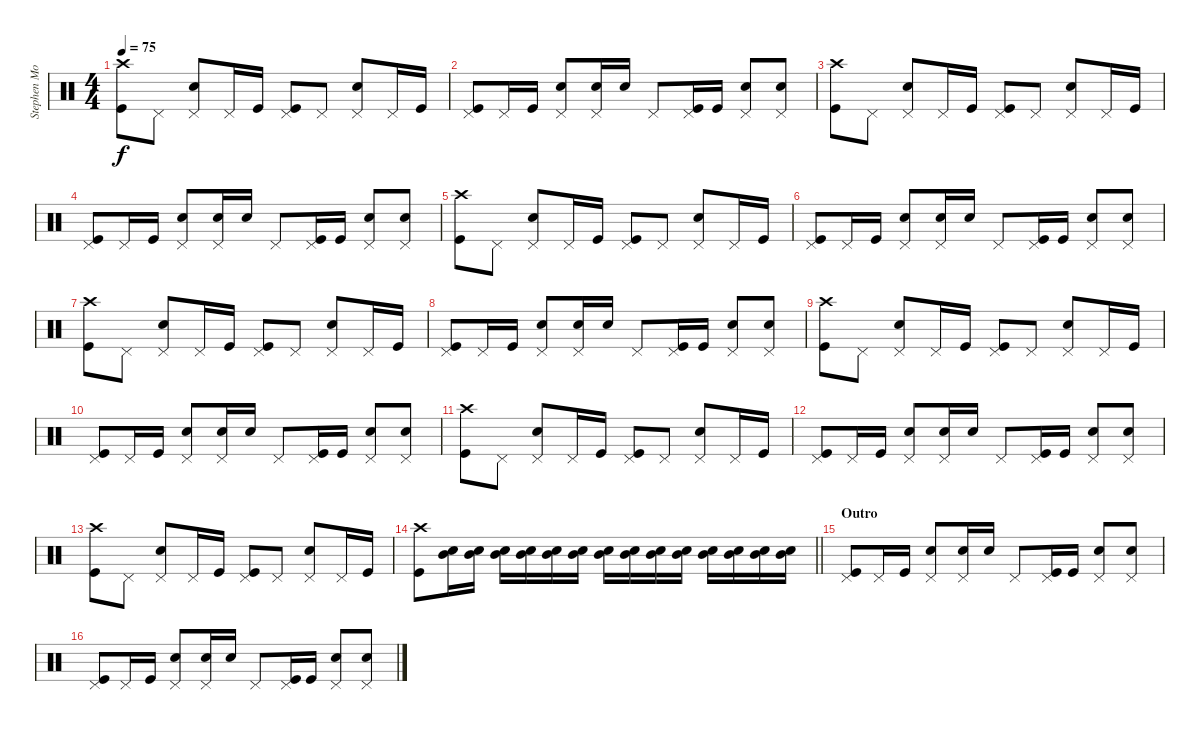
\track ("Stephen Morris (Drums)" "Stephen Mo") {instrument percussion}
\staff {score}
\articulation defaults
\ts (4 4)
\tempo 75
\clef neutral
\ks c
("Crash high (hit)" "Kick (hit)").8{dy f} "Pedal Hi-Hat (hit)".8 ("Pedal Hi-Hat (hit)" "Electric Snare (hit)").8 "Pedal Hi-Hat (hit)".16 "Kick (hit)".16 ("Pedal Hi-Hat (hit)" "Kick (hit)").8 "Pedal Hi-Hat (hit)".8 ("Pedal Hi-Hat (hit)" "Electric Snare (hit)").8 "Pedal Hi-Hat (hit)".16 "Kick (hit)".16 |
("Pedal Hi-Hat (hit)" "Kick (hit)").8 "Pedal Hi-Hat (hit)".16 "Kick (hit)".16 ("Pedal Hi-Hat (hit)" "Electric Snare (hit)").8 ("Pedal Hi-Hat (hit)" "Electric Snare (hit)").16 "Electric Snare (hit)".16 "Pedal Hi-Hat (hit)".8 ("Pedal Hi-Hat (hit)" "Kick (hit)").16 "Kick (hit)".16 ("Pedal Hi-Hat (hit)" "Electric Snare (hit)").8 ("Pedal Hi-Hat (hit)" "Electric Snare (hit)").8 |
("Crash high (hit)" "Kick (hit)").8 "Pedal Hi-Hat (hit)".8 ("Pedal Hi-Hat (hit)" "Electric Snare (hit)").8 "Pedal Hi-Hat (hit)".16 "Kick (hit)".16 ("Pedal Hi-Hat (hit)" "Kick (hit)").8 "Pedal Hi-Hat (hit)".8 ("Pedal Hi-Hat (hit)" "Electric Snare (hit)").8 "Pedal Hi-Hat (hit)".16 "Kick (hit)".16 |
("Pedal Hi-Hat (hit)" "Kick (hit)").8 "Pedal Hi-Hat (hit)".16 "Kick (hit)".16 ("Pedal Hi-Hat (hit)" "Electric Snare (hit)").8 ("Pedal Hi-Hat (hit)" "Electric Snare (hit)").16 "Electric Snare (hit)".16 "Pedal Hi-Hat (hit)".8 ("Pedal Hi-Hat (hit)" "Kick (hit)").16 "Kick (hit)".16 ("Pedal Hi-Hat (hit)" "Electric Snare (hit)").8 ("Pedal Hi-Hat (hit)" "Electric Snare (hit)").8 |
("Crash high (hit)" "Kick (hit)").8 "Pedal Hi-Hat (hit)".8 ("Pedal Hi-Hat (hit)" "Electric Snare (hit)").8 "Pedal Hi-Hat (hit)".16 "Kick (hit)".16 ("Pedal Hi-Hat (hit)" "Kick (hit)").8 "Pedal Hi-Hat (hit)".8 ("Pedal Hi-Hat (hit)" "Electric Snare (hit)").8 "Pedal Hi-Hat (hit)".16 "Kick (hit)".16 |
("Pedal Hi-Hat (hit)" "Kick (hit)").8 "Pedal Hi-Hat (hit)".16 "Kick (hit)".16 ("Pedal Hi-Hat (hit)" "Electric Snare (hit)").8 ("Pedal Hi-Hat (hit)" "Electric Snare (hit)").16 "Electric Snare (hit)".16 "Pedal Hi-Hat (hit)".8 ("Pedal Hi-Hat (hit)" "Kick (hit)").16 "Kick (hit)".16 ("Pedal Hi-Hat (hit)" "Electric Snare (hit)").8 ("Pedal Hi-Hat (hit)" "Electric Snare (hit)").8 |
("Crash high (hit)" "Kick (hit)").8 "Pedal Hi-Hat (hit)".8 ("Pedal Hi-Hat (hit)" "Electric Snare (hit)").8 "Pedal Hi-Hat (hit)".16 "Kick (hit)".16 ("Pedal Hi-Hat (hit)" "Kick (hit)").8 "Pedal Hi-Hat (hit)".8 ("Pedal Hi-Hat (hit)" "Electric Snare (hit)").8 "Pedal Hi-Hat (hit)".16 "Kick (hit)".16 |
("Pedal Hi-Hat (hit)" "Kick (hit)").8 "Pedal Hi-Hat (hit)".16 "Kick (hit)".16 ("Pedal Hi-Hat (hit)" "Electric Snare (hit)").8 ("Pedal Hi-Hat (hit)" "Electric Snare (hit)").16 "Electric Snare (hit)".16 "Pedal Hi-Hat (hit)".8 ("Pedal Hi-Hat (hit)" "Kick (hit)").16 "Kick (hit)".16 ("Pedal Hi-Hat (hit)" "Electric Snare (hit)").8 ("Pedal Hi-Hat (hit)" "Electric Snare (hit)").8 |
("Crash high (hit)" "Kick (hit)").8 "Pedal Hi-Hat (hit)".8 ("Pedal Hi-Hat (hit)" "Electric Snare (hit)").8 "Pedal Hi-Hat (hit)".16 "Kick (hit)".16 ("Pedal Hi-Hat (hit)" "Kick (hit)").8 "Pedal Hi-Hat (hit)".8 ("Pedal Hi-Hat (hit)" "Electric Snare (hit)").8 "Pedal Hi-Hat (hit)".16 "Kick (hit)".16 |
("Pedal Hi-Hat (hit)" "Kick (hit)").8 "Pedal Hi-Hat (hit)".16 "Kick (hit)".16 ("Pedal Hi-Hat (hit)" "Electric Snare (hit)").8 ("Pedal Hi-Hat (hit)" "Electric Snare (hit)").16 "Electric Snare (hit)".16 "Pedal Hi-Hat (hit)".8 ("Pedal Hi-Hat (hit)" "Kick (hit)").16 "Kick (hit)".16 ("Pedal Hi-Hat (hit)" "Electric Snare (hit)").8 ("Pedal Hi-Hat (hit)" "Electric Snare (hit)").8 |
("Crash high (hit)" "Kick (hit)").8 "Pedal Hi-Hat (hit)".8 ("Pedal Hi-Hat (hit)" "Electric Snare (hit)").8 "Pedal Hi-Hat (hit)".16 "Kick (hit)".16 ("Pedal Hi-Hat (hit)" "Kick (hit)").8 "Pedal Hi-Hat (hit)".8 ("Pedal Hi-Hat (hit)" "Electric Snare (hit)").8 "Pedal Hi-Hat (hit)".16 "Kick (hit)".16 |
("Pedal Hi-Hat (hit)" "Kick (hit)").8 "Pedal Hi-Hat (hit)".16 "Kick (hit)".16 ("Pedal Hi-Hat (hit)" "Electric Snare (hit)").8 ("Pedal Hi-Hat (hit)" "Electric Snare (hit)").16 "Electric Snare (hit)".16 "Pedal Hi-Hat (hit)".8 ("Pedal Hi-Hat (hit)" "Kick (hit)").16 "Kick (hit)".16 ("Pedal Hi-Hat (hit)" "Electric Snare (hit)").8 ("Pedal Hi-Hat (hit)" "Electric Snare (hit)").8 |
("Crash high (hit)" "Kick (hit)").8 "Pedal Hi-Hat (hit)".8 ("Pedal Hi-Hat (hit)" "Electric Snare (hit)").8 "Pedal Hi-Hat (hit)".16 "Kick (hit)".16 ("Pedal Hi-Hat (hit)" "Kick (hit)").8 "Pedal Hi-Hat (hit)".8 ("Pedal Hi-Hat (hit)" "Electric Snare (hit)").8 "Pedal Hi-Hat (hit)".16 "Kick (hit)".16 |
\barLineRight lightlight
("Crash high (hit)" "Kick (hit)").8 ("Mid Tom (hit)" "Electric Snare (hit)").16 ("Mid Tom (hit)" "Electric Snare (hit)").16 ("Mid Tom (hit)" "Electric Snare (hit)").16 ("Mid Tom (hit)" "Electric Snare (hit)").16 ("Mid Tom (hit)" "Electric Snare (hit)").16 ("Mid Tom (hit)" "Electric Snare (hit)").16 ("Mid Tom (hit)" "Electric Snare (hit)").16 ("Mid Tom (hit)" "Electric Snare (hit)").16 ("Mid Tom (hit)" "Electric Snare (hit)").16 ("Mid Tom (hit)" "Electric Snare (hit)").16 ("Mid Tom (hit)" "Electric Snare (hit)").16 ("Mid Tom (hit)" "Electric Snare (hit)").16 ("Mid Tom (hit)" "Electric Snare (hit)").16 ("Mid Tom (hit)" "Electric Snare (hit)").16 |
\section ("" "Outro")
("Pedal Hi-Hat (hit)" "Kick (hit)").8 "Pedal Hi-Hat (hit)".16 "Kick (hit)".16 ("Pedal Hi-Hat (hit)" "Electric Snare (hit)").8 ("Pedal Hi-Hat (hit)" "Electric Snare (hit)").16 "Electric Snare (hit)".16 "Pedal Hi-Hat (hit)".8 ("Pedal Hi-Hat (hit)" "Kick (hit)").16 "Kick (hit)".16 ("Pedal Hi-Hat (hit)" "Electric Snare (hit)").8 ("Pedal Hi-Hat (hit)" "Electric Snare (hit)").8 |
("Pedal Hi-Hat (hit)" "Kick (hit)").8 "Pedal Hi-Hat (hit)".16 "Kick (hit)".16 ("Pedal Hi-Hat (hit)" "Electric Snare (hit)").8 ("Pedal Hi-Hat (hit)" "Electric Snare (hit)").16 "Electric Snare (hit)".16 "Pedal Hi-Hat (hit)".8 ("Pedal Hi-Hat (hit)" "Kick (hit)").16 "Kick (hit)".16 ("Pedal Hi-Hat (hit)" "Electric Snare (hit)").8 ("Pedal Hi-Hat (hit)" "Electric Snare (hit)").8
